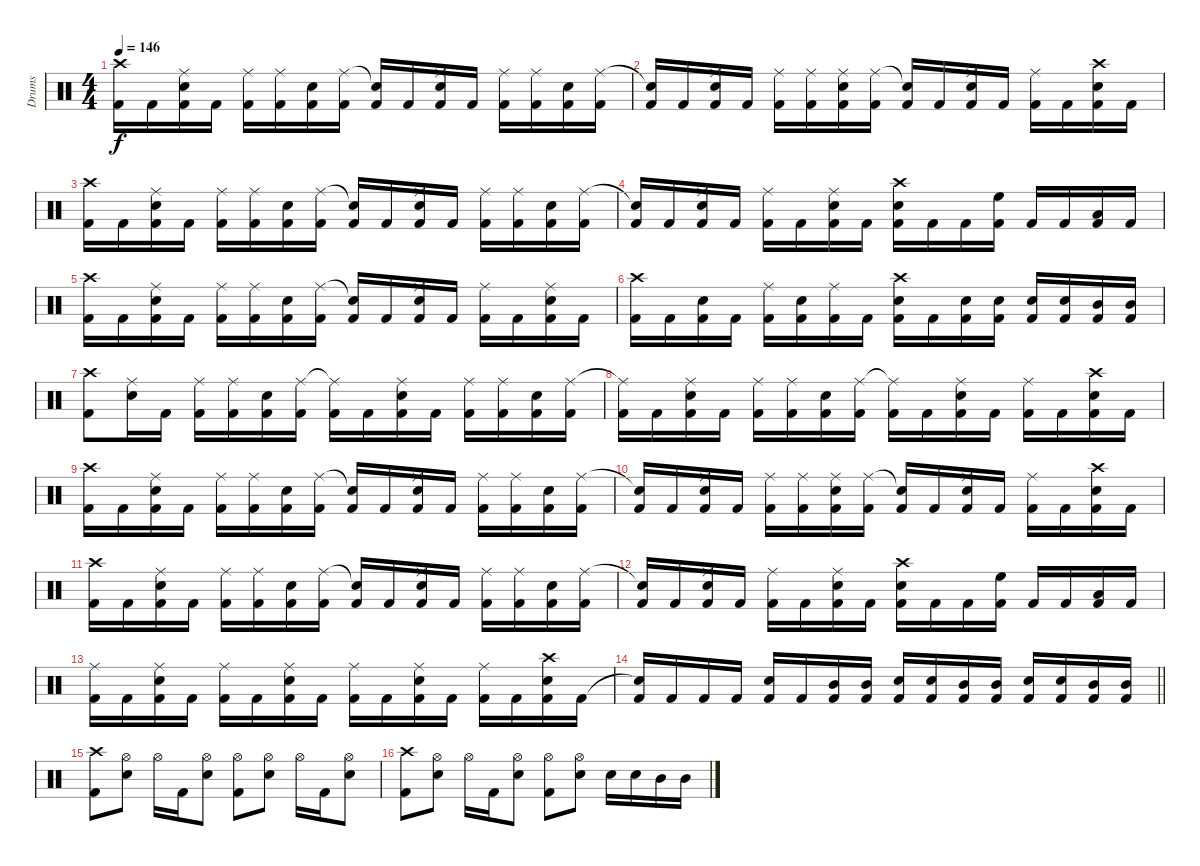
\track ("Drums" "Drums") {instrument percussion}
\staff {score}
\articulation defaults
\ts (4 4)
\tempo 146
\clef neutral
\ks c
("Crash high (hit)" "Kick (hit) 2").16{dy f} "Kick (hit) 2".16 ("Ride (middle)" "Snare (hit) 2" "Kick (hit) 2").16 "Kick (hit) 2".16 ("Ride (middle)" "Kick (hit) 2").16 ("Ride (middle)" "Kick (hit) 2").16 ("Snare (hit) 2" "Kick (hit) 2").16 ("Ride (middle)" "Kick (hit) 2").16 ("Snare (hit)"{t} "Kick (hit) 2").16 "Kick (hit) 2".16 ("Ride (middle)" "Snare (hit) 2" "Kick (hit) 2").16 "Kick (hit) 2".16 ("Ride (middle)" "Kick (hit) 2").16 ("Ride (middle)" "Kick (hit) 2").16 ("Snare (hit) 2" "Kick (hit) 2").16 ("Ride (middle)" "Kick (hit) 2").16 |
("Snare (hit)"{t} "Kick (hit) 2").16 "Kick (hit) 2".16 ("Ride (middle)" "Snare (hit) 2" "Kick (hit) 2").16 "Kick (hit) 2".16 ("Ride (middle)" "Kick (hit) 2").16 ("Ride (middle)" "Kick (hit) 2").16 ("Ride (middle)" "Snare (hit) 2" "Kick (hit) 2").16 ("Ride (middle)" "Kick (hit) 2").16 ("Snare (hit)"{t} "Kick (hit) 2").16 "Kick (hit) 2".16 ("Ride (middle)" "Snare (hit) 2" "Kick (hit) 2").16 "Kick (hit) 2".16 ("Ride (middle)" "Kick (hit) 2").16 "Kick (hit) 2".16 ("Crash high (hit)" "Snare (hit) 2" "Kick (hit) 2").16 "Kick (hit) 2".16 |
("Crash high (hit)" "Kick (hit) 2").16 "Kick (hit) 2".16 ("Ride (middle)" "Snare (hit) 2" "Kick (hit) 2").16 "Kick (hit) 2".16 ("Ride (middle)" "Kick (hit) 2").16 ("Ride (middle)" "Kick (hit) 2").16 ("Snare (hit) 2" "Kick (hit) 2").16 ("Ride (middle)" "Kick (hit) 2").16 ("Snare (hit)"{t} "Kick (hit) 2").16 "Kick (hit) 2".16 ("Ride (middle)" "Snare (hit) 2" "Kick (hit) 2").16 "Kick (hit) 2".16 ("Ride (middle)" "Kick (hit) 2").16 ("Ride (middle)" "Kick (hit) 2").16 ("Snare (hit) 2" "Kick (hit) 2").16 ("Ride (middle)" "Kick (hit) 2").16 |
("Snare (hit)"{t} "Kick (hit) 2").16 "Kick (hit) 2".16 ("Ride (middle)" "Snare (hit) 2" "Kick (hit) 2").16 "Kick (hit) 2".16 ("Ride (middle)" "Kick (hit) 2").16 "Kick (hit) 2".16 ("Ride (middle)" "Snare (hit) 2" "Kick (hit) 2").16 "Kick (hit) 2".16 ("Crash high (hit)" "Snare (hit) 2" "Kick (hit) 2").16 "Kick (hit) 2".16 "Kick (hit) 2".16 ("High Floor Tom (hit)" "Kick (hit) 2").16 "Kick (hit) 2".16 "Kick (hit) 2".16 ("Low Floor Tom (hit)" "Kick (hit) 2").16 "Kick (hit) 2".16 |
("Crash high (hit)" "Kick (hit) 2").16 "Kick (hit) 2".16 ("Ride (middle)" "Snare (hit) 2" "Kick (hit) 2").16 "Kick (hit) 2".16 ("Ride (middle)" "Kick (hit) 2").16 ("Ride (middle)" "Kick (hit) 2").16 ("Snare (hit) 2" "Kick (hit) 2").16 ("Ride (middle)" "Kick (hit) 2").16 ("Snare (hit)"{t} "Kick (hit) 2").16 "Kick (hit) 2".16 ("Ride (middle)" "Snare (hit) 2" "Kick (hit) 2").16 "Kick (hit) 2".16 ("Ride (middle)" "Kick (hit) 2").16 "Kick (hit) 2".16 ("Ride (middle)" "Snare (hit) 2" "Kick (hit) 2").16 "Kick (hit) 2".16 |
("Crash high (hit)" "Kick (hit) 2").16 "Kick (hit) 2".16 ("Snare (hit) 2" "Kick (hit) 2").16 "Kick (hit) 2".16 ("Ride (middle)" "Kick (hit) 2").16 ("Snare (hit) 2" "Kick (hit) 2").16 ("Ride (middle)" "Kick (hit) 2").16 "Kick (hit) 2".16 ("Crash high (hit)" "Snare (hit) 2" "Kick (hit) 2").16 "Kick (hit) 2".16 ("Snare (hit) 2" "Kick (hit) 2").16 ("Snare (hit) 2" "Kick (hit) 2").16 ("Snare (hit) 2" "Kick (hit) 2").16 ("Snare (hit) 2" "Kick (hit) 2").16 ("Mid Tom (hit)" "Kick (hit) 2").16 ("Mid Tom (hit)" "Kick (hit) 2").16 |
("Crash high (hit)" "Kick (hit) 2").8 ("Ride (middle)" "Snare (hit) 2").16 "Kick (hit) 2".16 ("Ride (middle)" "Kick (hit) 2").16 ("Ride (middle)" "Kick (hit) 2").16 ("Snare (hit) 2" "Kick (hit) 2").16 ("Ride (middle)" "Kick (hit) 2").16 ("Ride (middle)"{t} "Kick (hit) 2").16 "Kick (hit) 2".16 ("Ride (middle)" "Snare (hit) 2" "Kick (hit) 2").16 "Kick (hit) 2".16 ("Ride (middle)" "Kick (hit) 2").16 ("Ride (middle)" "Kick (hit) 2").16 ("Snare (hit) 2" "Kick (hit) 2").16 ("Ride (middle)" "Kick (hit) 2").16 |
("Ride (middle)"{t} "Kick (hit) 2").16 "Kick (hit) 2".16 ("Ride (middle)" "Snare (hit) 2" "Kick (hit) 2").16 "Kick (hit) 2".16 ("Ride (middle)" "Kick (hit) 2").16 ("Ride (middle)" "Kick (hit) 2").16 ("Snare (hit) 2" "Kick (hit) 2").16 ("Ride (middle)" "Kick (hit) 2").16 ("Ride (middle)"{t} "Kick (hit) 2").16 "Kick (hit) 2".16 ("Ride (middle)" "Snare (hit) 2" "Kick (hit) 2").16 "Kick (hit) 2".16 ("Ride (middle)" "Kick (hit) 2").16 "Kick (hit) 2".16 ("Crash high (hit)" "Snare (hit) 2" "Kick (hit) 2").16 "Kick (hit) 2".16 |
("Crash high (hit)" "Kick (hit) 2").16 "Kick (hit) 2".16 ("Ride (middle)" "Snare (hit) 2" "Kick (hit) 2").16 "Kick (hit) 2".16 ("Ride (middle)" "Kick (hit) 2").16 ("Ride (middle)" "Kick (hit) 2").16 ("Snare (hit) 2" "Kick (hit) 2").16 ("Ride (middle)" "Kick (hit) 2").16 ("Snare (hit)"{t} "Kick (hit) 2").16 "Kick (hit) 2".16 ("Ride (middle)" "Snare (hit) 2" "Kick (hit) 2").16 "Kick (hit) 2".16 ("Ride (middle)" "Kick (hit) 2").16 ("Ride (middle)" "Kick (hit) 2").16 ("Snare (hit) 2" "Kick (hit) 2").16 ("Ride (middle)" "Kick (hit) 2").16 |
("Snare (hit)"{t} "Kick (hit) 2").16 "Kick (hit) 2".16 ("Ride (middle)" "Snare (hit) 2" "Kick (hit) 2").16 "Kick (hit) 2".16 ("Ride (middle)" "Kick (hit) 2").16 ("Ride (middle)" "Kick (hit) 2").16 ("Ride (middle)" "Snare (hit) 2" "Kick (hit) 2").16 ("Ride (middle)" "Kick (hit) 2").16 ("Snare (hit)"{t} "Kick (hit) 2").16 "Kick (hit) 2".16 ("Ride (middle)" "Snare (hit) 2" "Kick (hit) 2").16 "Kick (hit) 2".16 ("Ride (middle)" "Kick (hit) 2").16 "Kick (hit) 2".16 ("Crash high (hit)" "Snare (hit) 2" "Kick (hit) 2").16 "Kick (hit) 2".16 |
("Crash high (hit)" "Kick (hit) 2").16 "Kick (hit) 2".16 ("Ride (middle)" "Snare (hit) 2" "Kick (hit) 2").16 "Kick (hit) 2".16 ("Ride (middle)" "Kick (hit) 2").16 ("Ride (middle)" "Kick (hit) 2").16 ("Snare (hit) 2" "Kick (hit) 2").16 ("Ride (middle)" "Kick (hit) 2").16 ("Snare (hit)"{t} "Kick (hit) 2").16 "Kick (hit) 2".16 ("Ride (middle)" "Snare (hit) 2" "Kick (hit) 2").16 "Kick (hit) 2".16 ("Ride (middle)" "Kick (hit) 2").16 ("Ride (middle)" "Kick (hit) 2").16 ("Snare (hit) 2" "Kick (hit) 2").16 ("Ride (middle)" "Kick (hit) 2").16 |
("Snare (hit)"{t} "Kick (hit) 2").16 "Kick (hit) 2".16 ("Ride (middle)" "Snare (hit) 2" "Kick (hit) 2").16 "Kick (hit) 2".16 ("Ride (middle)" "Kick (hit) 2").16 "Kick (hit) 2".16 ("Ride (middle)" "Snare (hit) 2" "Kick (hit) 2").16 "Kick (hit) 2".16 ("Crash high (hit)" "Snare (hit) 2" "Kick (hit) 2").16 "Kick (hit) 2".16 "Kick (hit) 2".16 ("High Floor Tom (hit)" "Kick (hit) 2").16 "Kick (hit) 2".16 "Kick (hit) 2".16 ("Low Floor Tom (hit)" "Kick (hit) 2").16 "Kick (hit) 2".16 |
("Ride (middle)" "Kick (hit) 2").16 "Kick (hit) 2".16 ("Ride (middle)" "Snare (hit) 2" "Kick (hit) 2").16 "Kick (hit) 2".16 ("Ride (middle)" "Kick (hit) 2").16 "Kick (hit) 2".16 ("Ride (middle)" "Snare (hit) 2" "Kick (hit) 2").16 "Kick (hit) 2".16 ("Ride (middle)" "Kick (hit) 2").16 "Kick (hit) 2".16 ("Ride (middle)" "Snare (hit) 2" "Kick (hit) 2").16 "Kick (hit) 2".16 ("Ride (middle)" "Kick (hit) 2").16 "Kick (hit) 2".16 ("Crash high (hit)" "Snare (hit) 2" "Kick (hit) 2").16 "Kick (hit) 2".16 |
\barLineRight lightlight
("Snare (hit)"{t} "Kick (hit) 2").16 "Kick (hit) 2".16 "Kick (hit) 2".16 "Kick (hit) 2".16 ("Snare (hit) 2" "Kick (hit) 2").16 "Kick (hit) 2".16 ("Mid Tom (hit)" "Kick (hit) 2").16 ("Mid Tom (hit)" "Kick (hit) 2").16 ("Snare (hit) 2" "Kick (hit) 2").16 ("Snare (hit) 2" "Kick (hit) 2").16 ("Mid Tom (hit)" "Kick (hit) 2").16 ("Mid Tom (hit)" "Kick (hit) 2").16 ("Snare (hit) 2" "Kick (hit) 2").16 ("Snare (hit) 2" "Kick (hit) 2").16 ("Mid Tom (hit)" "Kick (hit) 2").16 ("Mid Tom (hit)" "Kick (hit) 2").16 |
("Crash high (hit)" "Kick (hit) 2").8 ("Hi-Hat (open)" "Snare (hit) 2").8 "Hi-Hat (open)".16 "Kick (hit) 2".16 ("Hi-Hat (open)" "Snare (hit) 2").8 ("Hi-Hat (open)" "Kick (hit) 2").8 ("Hi-Hat (open)" "Snare (hit) 2").8 "Hi-Hat (open)".16 "Kick (hit) 2".16 ("Hi-Hat (open)" "Snare (hit) 2").8 |
("Crash high (hit)" "Kick (hit) 2").8 ("Hi-Hat (open)" "Snare (hit) 2").8 "Hi-Hat (open)".16 "Kick (hit) 2".16 ("Hi-Hat (open)" "Snare (hit) 2").8 ("Hi-Hat (open)" "Kick (hit) 2").8 ("Hi-Hat (open)" "Snare (hit) 2").8 "Snare (hit) 2".16 "Snare (hit) 2".16 "Mid Tom (hit)".16 "Mid Tom (hit)".16
